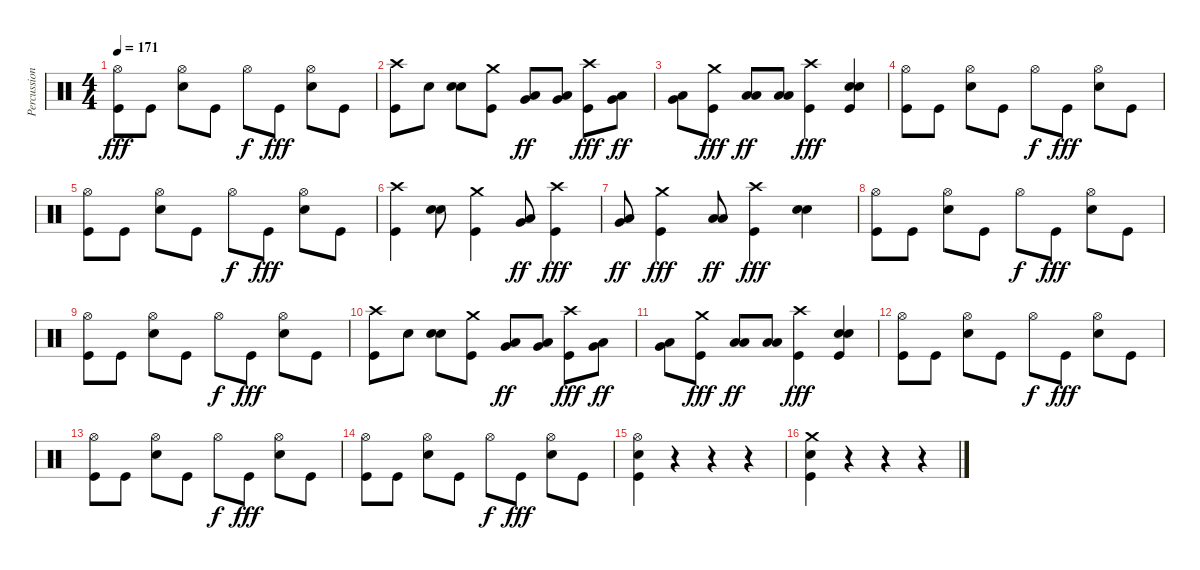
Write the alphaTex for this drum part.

\track ("Percussion" "Percussion") {instrument percussion}
\staff {score}
\articulation defaults
\ts (4 4)
\tempo 171
\clef neutral
\ks c
("Hi-Hat (open)" "Kick (hit)").8{dy fff} "Kick (hit)".8 ("Hi-Hat (open)" "Snare (hit) 2").8 "Kick (hit)".8 "Hi-Hat (open)".8{dy f} "Kick (hit)".8{dy fff} ("Hi-Hat (open)" "Snare (hit) 2").8 "Kick (hit)".8 |
("Crash high (hit)" "Kick (hit)").8 "Snare (hit) 2".8 ("Electric Snare (hit)" "Snare (hit) 2").8 ("Crash medium (hit)" "Kick (hit)").8 ("Very Low Tom (hit)" "Low Tom (hit)").8{dy ff} ("Very Low Tom (hit)" "Low Tom (hit)").8 ("Crash high (hit)" "Kick (hit)").8{dy fff} ("Low Floor Tom (hit)" "Very Low Tom (hit)").8{dy ff} |
("Low Floor Tom (hit)" "Very Low Tom (hit)").8 ("Crash medium (hit)" "Kick (hit)").8{dy fff} ("Low Floor Tom (hit)" "Low Floor Tom (hit)").8{dy ff} ("Low Floor Tom (hit)" "Low Floor Tom (hit)").8 ("Crash high (hit)" "Kick (hit)").4{dy fff} ("Electric Snare (hit)" "Snare (hit) 2" "Kick (hit)").4 |
("Hi-Hat (open)" "Kick (hit)").8 "Kick (hit)".8 ("Hi-Hat (open)" "Snare (hit) 2").8 "Kick (hit)".8 "Hi-Hat (open)".8{dy f} "Kick (hit)".8{dy fff} ("Hi-Hat (open)" "Snare (hit) 2").8 "Kick (hit)".8 |
("Hi-Hat (open)" "Kick (hit)").8 "Kick (hit)".8 ("Hi-Hat (open)" "Snare (hit) 2").8 "Kick (hit)".8 "Hi-Hat (open)".8{dy f} "Kick (hit)".8{dy fff} ("Hi-Hat (open)" "Snare (hit) 2").8 "Kick (hit)".8 |
("Crash high (hit)" "Kick (hit)").4 ("Electric Snare (hit)" "Snare (hit) 2").8 ("Crash medium (hit)" "Kick (hit)").4 ("Very Low Tom (hit)" "Low Tom (hit)").8{dy ff} ("Crash high (hit)" "Kick (hit)").4{dy fff} |
("Low Floor Tom (hit)" "Very Low Tom (hit)").8{dy ff} ("Crash medium (hit)" "Kick (hit)").4{dy fff} ("Low Floor Tom (hit)" "Low Floor Tom (hit)").8{dy ff} ("Crash high (hit)" "Kick (hit)").4{dy fff} ("Electric Snare (hit)" "Snare (hit) 2").4 |
("Hi-Hat (open)" "Kick (hit)").8 "Kick (hit)".8 ("Hi-Hat (open)" "Snare (hit) 2").8 "Kick (hit)".8 "Hi-Hat (open)".8{dy f} "Kick (hit)".8{dy fff} ("Hi-Hat (open)" "Snare (hit) 2").8 "Kick (hit)".8 |
("Hi-Hat (open)" "Kick (hit)").8 "Kick (hit)".8 ("Hi-Hat (open)" "Snare (hit) 2").8 "Kick (hit)".8 "Hi-Hat (open)".8{dy f} "Kick (hit)".8{dy fff} ("Hi-Hat (open)" "Snare (hit) 2").8 "Kick (hit)".8 |
("Crash high (hit)" "Kick (hit)").8 "Snare (hit) 2".8 ("Electric Snare (hit)" "Snare (hit) 2").8 ("Crash medium (hit)" "Kick (hit)").8 ("Very Low Tom (hit)" "Low Tom (hit)").8{dy ff} ("Very Low Tom (hit)" "Low Tom (hit)").8 ("Crash high (hit)" "Kick (hit)").8{dy fff} ("Low Floor Tom (hit)" "Very Low Tom (hit)").8{dy ff} |
("Low Floor Tom (hit)" "Very Low Tom (hit)").8 ("Crash medium (hit)" "Kick (hit)").8{dy fff} ("Low Floor Tom (hit)" "Low Floor Tom (hit)").8{dy ff} ("Low Floor Tom (hit)" "Low Floor Tom (hit)").8 ("Crash high (hit)" "Kick (hit)").4{dy fff} ("Electric Snare (hit)" "Snare (hit) 2" "Kick (hit)").4 |
("Hi-Hat (open)" "Kick (hit)").8 "Kick (hit)".8 ("Hi-Hat (open)" "Snare (hit) 2").8 "Kick (hit)".8 "Hi-Hat (open)".8{dy f} "Kick (hit)".8{dy fff} ("Hi-Hat (open)" "Snare (hit) 2").8 "Kick (hit)".8 |
("Hi-Hat (open)" "Kick (hit)").8 "Kick (hit)".8 ("Hi-Hat (open)" "Snare (hit) 2").8 "Kick (hit)".8 "Hi-Hat (open)".8{dy f} "Kick (hit)".8{dy fff} ("Hi-Hat (open)" "Snare (hit) 2").8 "Kick (hit)".8 |
("Hi-Hat (open)" "Kick (hit)").8 "Kick (hit)".8 ("Hi-Hat (open)" "Snare (hit) 2").8 "Kick (hit)".8 "Hi-Hat (open)".8{dy f} "Kick (hit)".8{dy fff} ("Hi-Hat (open)" "Snare (hit) 2").8 "Kick (hit)".8 |
("Hi-Hat (open)" "Snare (hit) 2" "Kick (hit)").4 r.4 r.4 r.4 |
("Crash medium (hit)" "Snare (hit) 2" "Kick (hit)").4 r.4 r.4 r.4
